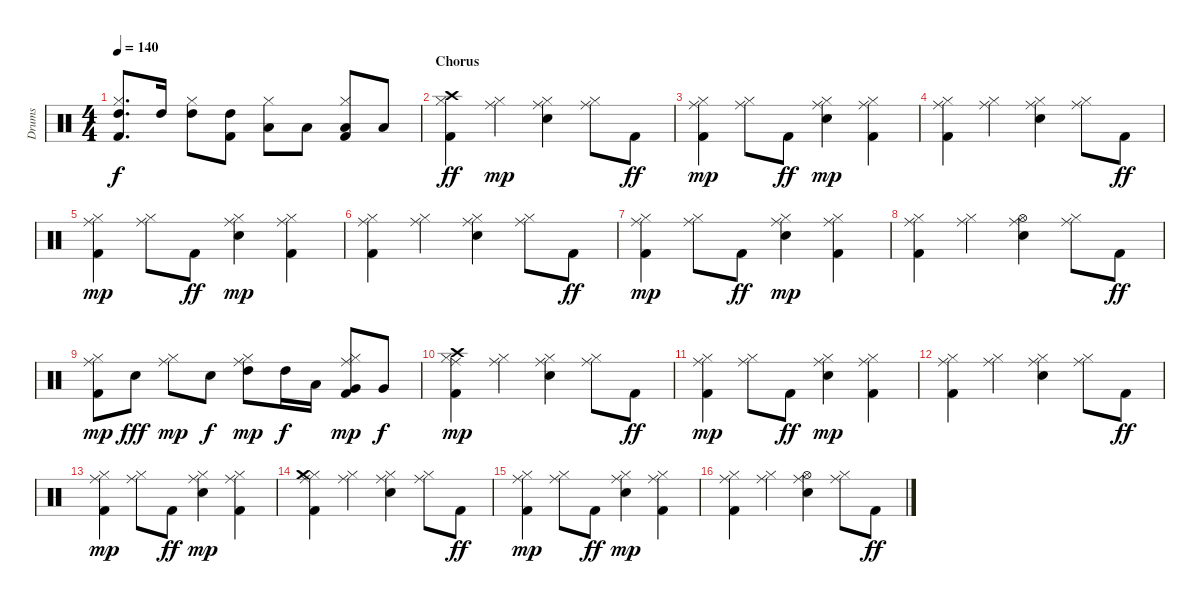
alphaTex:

\track ("Drums" "Drums") {instrument percussion}
\staff {score}
\articulation defaults
\ts (4 4)
\tempo 140
\clef neutral
\ks c
("Kick (hit) 2" "Hi-Hat (closed)" "High Tom (hit)").8{d dy f} "High Tom (hit)".16 ("Hi-Hat (closed)" "High Tom (hit)").8 ("Kick (hit) 2" "High Tom (hit)").8 ("Hi-Hat (closed)" "Low Tom (hit)").8 "Low Tom (hit)".8 ("Kick (hit) 2" "Low Floor Tom (hit)" "Hi-Hat (closed)").8 "Low Floor Tom (hit)".8 |
\section ("" "Chorus")
("Kick (hit) 2" "Hi-Hat (closed)" "Crash high (hit)").4{dy ff} ("Hi-Hat (closed)" "Ride (middle)").4{dy mp} ("Snare (hit) 2" "Hi-Hat (closed)" "Ride (middle)").4 ("Hi-Hat (closed)" "Ride (middle)").8 "Kick (hit) 2".8{dy ff} |
("Kick (hit) 2" "Hi-Hat (closed)" "Ride (middle)").4{dy mp} ("Hi-Hat (closed)" "Ride (middle)").8 "Kick (hit) 2".8{dy ff} ("Snare (hit) 2" "Hi-Hat (closed)" "Ride (middle)").4{dy mp} ("Kick (hit) 2" "Hi-Hat (closed)" "Ride (middle)").4 |
("Kick (hit) 2" "Hi-Hat (closed)" "Ride (middle)").4 ("Hi-Hat (closed)" "Ride (middle)").4 ("Snare (hit) 2" "Hi-Hat (closed)" "Ride (middle)").4 ("Hi-Hat (closed)" "Ride (middle)").8 "Kick (hit) 2".8{dy ff} |
("Kick (hit) 2" "Hi-Hat (closed)" "Ride (middle)").4{dy mp} ("Hi-Hat (closed)" "Ride (middle)").8 "Kick (hit) 2".8{dy ff} ("Snare (hit) 2" "Hi-Hat (closed)" "Ride (middle)").4{dy mp} ("Kick (hit) 2" "Hi-Hat (closed)" "Ride (middle)").4 |
("Kick (hit) 2" "Hi-Hat (closed)" "Ride (middle)").4 ("Hi-Hat (closed)" "Ride (middle)").4 ("Snare (hit) 2" "Hi-Hat (closed)" "Ride (middle)").4 ("Hi-Hat (closed)" "Ride (middle)").8 "Kick (hit) 2".8{dy ff} |
("Kick (hit) 2" "Hi-Hat (closed)" "Ride (middle)").4{dy mp} ("Hi-Hat (closed)" "Ride (middle)").8 "Kick (hit) 2".8{dy ff} ("Snare (hit) 2" "Hi-Hat (closed)" "Ride (middle)").4{dy mp} ("Kick (hit) 2" "Hi-Hat (closed)" "Ride (middle)").4 |
("Kick (hit) 2" "Hi-Hat (closed)" "Ride (middle)").4 ("Hi-Hat (closed)" "Ride (middle)").4 ("Snare (hit) 2" "Hi-Hat (open)" "Ride (middle)").4 ("Hi-Hat (closed)" "Ride (middle)").8 "Kick (hit) 2".8{dy ff} |
("Kick (hit) 2" "Hi-Hat (closed)" "Ride (middle)").8{dy mp} "Snare (hit) 2".8{dy fff} ("Hi-Hat (closed)" "Ride (middle)").8{dy mp} "Snare (hit) 2".8{dy f} ("Hi-Hat (closed)" "High Tom (hit)" "Ride (middle)").8{dy mp} "High Tom (hit)".16{dy f} "Low Tom (hit)".16 ("Kick (hit) 2" "Hi-Hat (closed)" "Very Low Tom (hit)" "Ride (middle)").8{dy mp} "Very Low Tom (hit)".8{dy f} |
("Kick (hit) 2" "Hi-Hat (closed)" "Crash high (hit)" "Ride (middle)").4{dy mp} ("Hi-Hat (closed)" "Ride (middle)").4 ("Snare (hit) 2" "Hi-Hat (closed)" "Ride (middle)").4 ("Hi-Hat (closed)" "Ride (middle)").8 "Kick (hit) 2".8{dy ff} |
("Kick (hit) 2" "Hi-Hat (closed)" "Ride (middle)").4{dy mp} ("Hi-Hat (closed)" "Ride (middle)").8 "Kick (hit) 2".8{dy ff} ("Snare (hit) 2" "Hi-Hat (closed)" "Ride (middle)").4{dy mp} ("Kick (hit) 2" "Hi-Hat (closed)" "Ride (middle)").4 |
("Kick (hit) 2" "Hi-Hat (closed)" "Ride (middle)").4 ("Hi-Hat (closed)" "Ride (middle)").4 ("Snare (hit) 2" "Hi-Hat (closed)" "Ride (middle)").4 ("Hi-Hat (closed)" "Ride (middle)").8 "Kick (hit) 2".8{dy ff} |
("Kick (hit) 2" "Hi-Hat (closed)" "Ride (middle)").4{dy mp} ("Hi-Hat (closed)" "Ride (middle)").8 "Kick (hit) 2".8{dy ff} ("Snare (hit) 2" "Hi-Hat (closed)" "Ride (middle)").4{dy mp} ("Kick (hit) 2" "Hi-Hat (closed)" "Ride (middle)").4 |
("Kick (hit) 2" "Hi-Hat (closed)" "Crash medium (hit)" "Ride (middle)").4 ("Hi-Hat (closed)" "Ride (middle)").4 ("Snare (hit) 2" "Hi-Hat (closed)" "Ride (middle)").4 ("Hi-Hat (closed)" "Ride (middle)").8 "Kick (hit) 2".8{dy ff} |
("Kick (hit) 2" "Hi-Hat (closed)" "Ride (middle)").4{dy mp} ("Hi-Hat (closed)" "Ride (middle)").8 "Kick (hit) 2".8{dy ff} ("Snare (hit) 2" "Hi-Hat (closed)" "Ride (middle)").4{dy mp} ("Kick (hit) 2" "Hi-Hat (closed)" "Ride (middle)").4 |
("Kick (hit) 2" "Hi-Hat (closed)" "Ride (middle)").4 ("Hi-Hat (closed)" "Ride (middle)").4 ("Snare (hit) 2" "Hi-Hat (open)" "Ride (middle)").4 ("Hi-Hat (closed)" "Ride (middle)").8 "Kick (hit) 2".8{dy ff}
